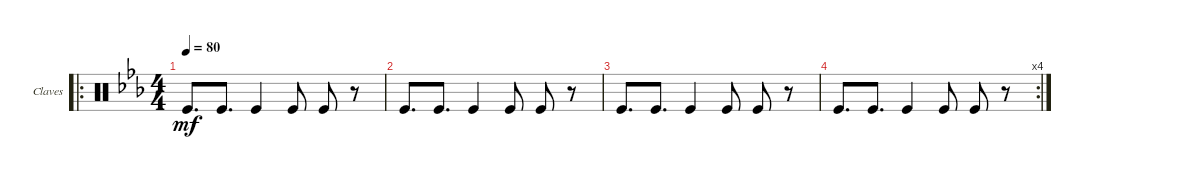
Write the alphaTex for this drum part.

\defaultSystemsLayout 4
\bracketExtendMode groupsimilarinstruments
\firstSystemTrackNameOrientation horizontal
\otherSystemsTrackNameOrientation horizontal
\track ("Claves" "Claves") {instrument percussion}
\staff {score}
\articulation defaults
\ro
\ts (4 4)
\tempo 80
\clef neutral
\scale
0.547619
\ks eb "Kick (hit)".8{d dy mf} "Kick (hit)".8{d} "Kick (hit)".4 "Kick (hit)".8 "Kick (hit)".8
r.8 |
\scale
0.22619 "Kick (hit)".8{d} "Kick (hit)".8{d} "Kick (hit)".4 "Kick (hit)".8 "Kick (hit)".8 r.8 |
\scale
0.22619 "Kick (hit)".8{d} "Kick (hit)".8{d} "Kick (hit)".4 "Kick (hit)".8 "Kick (hit)".8 r.8 |
\rc 4 "Kick (hit)".8{d} "Kick (hit)".8{d} "Kick (hit)".4 "Kick (hit)".8 "Kick (hit)".8
r.8
